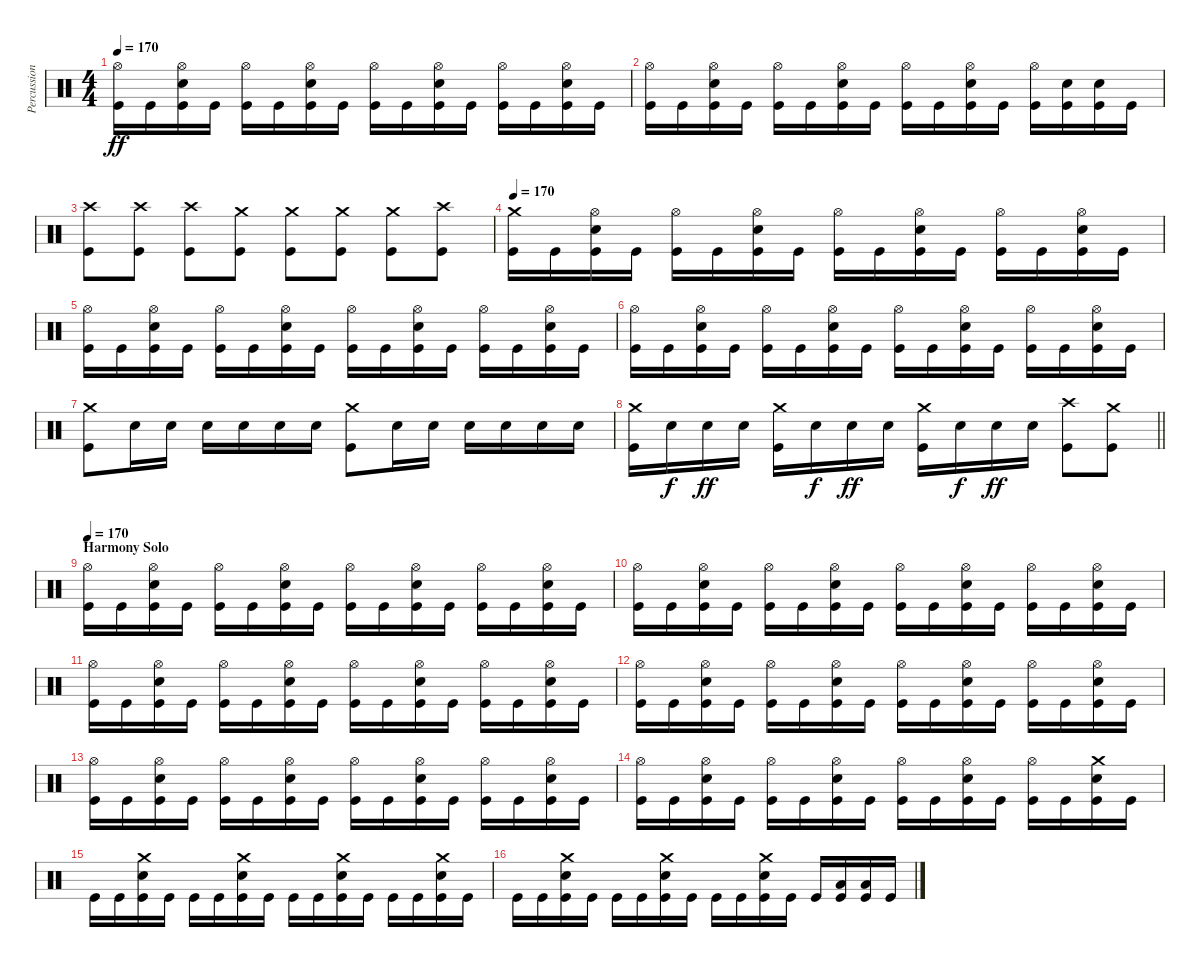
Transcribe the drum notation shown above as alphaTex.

\track ("Percussion" "Percussion") {instrument percussion}
\staff {score}
\articulation defaults
\ts (4 4)
\tempo 170
\clef neutral
\ks c
("Hi-Hat (open)" "Kick (hit)").16{dy ff} "Kick (hit)".16 ("Hi-Hat (open)" "Snare (hit) 2" "Kick (hit)").16 "Kick (hit)".16 ("Hi-Hat (open)" "Kick (hit)").16 "Kick (hit)".16 ("Hi-Hat (open)" "Snare (hit) 2" "Kick (hit)").16 "Kick (hit)".16 ("Hi-Hat (open)" "Kick (hit)").16 "Kick (hit)".16 ("Hi-Hat (open)" "Snare (hit) 2" "Kick (hit)").16 "Kick (hit)".16 ("Hi-Hat (open)" "Kick (hit)").16 "Kick (hit)".16 ("Hi-Hat (open)" "Snare (hit) 2" "Kick (hit)").16 "Kick (hit)".16 |
("Hi-Hat (open)" "Kick (hit)").16 "Kick (hit)".16 ("Hi-Hat (open)" "Snare (hit) 2" "Kick (hit)").16 "Kick (hit)".16 ("Hi-Hat (open)" "Kick (hit)").16 "Kick (hit)".16 ("Hi-Hat (open)" "Snare (hit) 2" "Kick (hit)").16 "Kick (hit)".16 ("Hi-Hat (open)" "Kick (hit)").16 "Kick (hit)".16 ("Hi-Hat (open)" "Snare (hit) 2" "Kick (hit)").16 "Kick (hit)".16 ("Hi-Hat (open)" "Kick (hit)").16 ("Snare (hit) 2" "Kick (hit)").16 ("Snare (hit) 2" "Kick (hit)").16 "Kick (hit)".16 |
("Crash high (hit)" "Kick (hit)").8 ("Crash high (hit)" "Kick (hit)").8 ("Crash high (hit)" "Kick (hit)").8 ("Crash medium (hit)" "Kick (hit)").8 ("Crash medium (hit)" "Kick (hit)").8 ("Crash medium (hit)" "Kick (hit)").8 ("Crash medium (hit)" "Kick (hit)").8 ("Crash high (hit)" "Kick (hit)").8 |
\tempo 170
("Crash medium (hit)" "Kick (hit)").16 "Kick (hit)".16 ("Hi-Hat (open)" "Snare (hit) 2" "Kick (hit)").16 "Kick (hit)".16 ("Hi-Hat (open)" "Kick (hit)").16 "Kick (hit)".16 ("Hi-Hat (open)" "Snare (hit) 2" "Kick (hit)").16 "Kick (hit)".16 ("Hi-Hat (open)" "Kick (hit)").16 "Kick (hit)".16 ("Hi-Hat (open)" "Snare (hit) 2" "Kick (hit)").16 "Kick (hit)".16 ("Hi-Hat (open)" "Kick (hit)").16 "Kick (hit)".16 ("Hi-Hat (open)" "Snare (hit) 2" "Kick (hit)").16 "Kick (hit)".16 |
("Hi-Hat (open)" "Kick (hit)").16 "Kick (hit)".16 ("Hi-Hat (open)" "Snare (hit) 2" "Kick (hit)").16 "Kick (hit)".16 ("Hi-Hat (open)" "Kick (hit)").16 "Kick (hit)".16 ("Hi-Hat (open)" "Snare (hit) 2" "Kick (hit)").16 "Kick (hit)".16 ("Hi-Hat (open)" "Kick (hit)").16 "Kick (hit)".16 ("Hi-Hat (open)" "Snare (hit) 2" "Kick (hit)").16 "Kick (hit)".16 ("Hi-Hat (open)" "Kick (hit)").16 "Kick (hit)".16 ("Hi-Hat (open)" "Snare (hit) 2" "Kick (hit)").16 "Kick (hit)".16 |
("Hi-Hat (open)" "Kick (hit)").16 "Kick (hit)".16 ("Hi-Hat (open)" "Snare (hit) 2" "Kick (hit)").16 "Kick (hit)".16 ("Hi-Hat (open)" "Kick (hit)").16 "Kick (hit)".16 ("Hi-Hat (open)" "Snare (hit) 2" "Kick (hit)").16 "Kick (hit)".16 ("Hi-Hat (open)" "Kick (hit)").16 "Kick (hit)".16 ("Hi-Hat (open)" "Snare (hit) 2" "Kick (hit)").16 "Kick (hit)".16 ("Hi-Hat (open)" "Kick (hit)").16 "Kick (hit)".16 ("Hi-Hat (open)" "Snare (hit) 2" "Kick (hit)").16 "Kick (hit)".16 |
("Crash medium (hit)" "Kick (hit)").8 "Snare (hit) 2".16 "Snare (hit) 2".16 "Snare (hit) 2".16 "Snare (hit) 2".16 "Snare (hit) 2".16 "Snare (hit) 2".16 ("Crash medium (hit)" "Kick (hit)").8 "Snare (hit) 2".16 "Snare (hit) 2".16 "Snare (hit) 2".16 "Snare (hit) 2".16 "Snare (hit) 2".16 "Snare (hit) 2".16 |
\barLineRight lightlight
("Crash medium (hit)" "Kick (hit)").16 "Snare (hit) 2".16{dy f} "Snare (hit) 2".16{dy ff} "Snare (hit) 2".16 ("Crash medium (hit)" "Kick (hit)").16 "Snare (hit) 2".16{dy f} "Snare (hit) 2".16{dy ff} "Snare (hit) 2".16 ("Crash medium (hit)" "Kick (hit)").16 "Snare (hit) 2".16{dy f} "Snare (hit) 2".16{dy ff} "Snare (hit) 2".16 ("Crash high (hit)" "Kick (hit)").8 ("Crash medium (hit)" "Kick (hit)").8 |
\section ("" "Harmony Solo")
\tempo 170
("Hi-Hat (open)" "Kick (hit)").16 "Kick (hit)".16 ("Hi-Hat (open)" "Snare (hit) 2" "Kick (hit)").16 "Kick (hit)".16 ("Hi-Hat (open)" "Kick (hit)").16 "Kick (hit)".16 ("Hi-Hat (open)" "Snare (hit) 2" "Kick (hit)").16 "Kick (hit)".16 ("Hi-Hat (open)" "Kick (hit)").16 "Kick (hit)".16 ("Hi-Hat (open)" "Snare (hit) 2" "Kick (hit)").16 "Kick (hit)".16 ("Hi-Hat (open)" "Kick (hit)").16 "Kick (hit)".16 ("Hi-Hat (open)" "Snare (hit) 2" "Kick (hit)").16 "Kick (hit)".16 |
("Hi-Hat (open)" "Kick (hit)").16 "Kick (hit)".16 ("Hi-Hat (open)" "Snare (hit) 2" "Kick (hit)").16 "Kick (hit)".16 ("Hi-Hat (open)" "Kick (hit)").16 "Kick (hit)".16 ("Hi-Hat (open)" "Snare (hit) 2" "Kick (hit)").16 "Kick (hit)".16 ("Hi-Hat (open)" "Kick (hit)").16 "Kick (hit)".16 ("Hi-Hat (open)" "Snare (hit) 2" "Kick (hit)").16 "Kick (hit)".16 ("Hi-Hat (open)" "Kick (hit)").16 "Kick (hit)".16 ("Hi-Hat (open)" "Snare (hit) 2" "Kick (hit)").16 "Kick (hit)".16 |
("Hi-Hat (open)" "Kick (hit)").16 "Kick (hit)".16 ("Hi-Hat (open)" "Snare (hit) 2" "Kick (hit)").16 "Kick (hit)".16 ("Hi-Hat (open)" "Kick (hit)").16 "Kick (hit)".16 ("Hi-Hat (open)" "Snare (hit) 2" "Kick (hit)").16 "Kick (hit)".16 ("Hi-Hat (open)" "Kick (hit)").16 "Kick (hit)".16 ("Hi-Hat (open)" "Snare (hit) 2" "Kick (hit)").16 "Kick (hit)".16 ("Hi-Hat (open)" "Kick (hit)").16 "Kick (hit)".16 ("Hi-Hat (open)" "Snare (hit) 2" "Kick (hit)").16 "Kick (hit)".16 |
("Hi-Hat (open)" "Kick (hit)").16 "Kick (hit)".16 ("Hi-Hat (open)" "Snare (hit) 2" "Kick (hit)").16 "Kick (hit)".16 ("Hi-Hat (open)" "Kick (hit)").16 "Kick (hit)".16 ("Hi-Hat (open)" "Snare (hit) 2" "Kick (hit)").16 "Kick (hit)".16 ("Hi-Hat (open)" "Kick (hit)").16 "Kick (hit)".16 ("Hi-Hat (open)" "Snare (hit) 2" "Kick (hit)").16 "Kick (hit)".16 ("Hi-Hat (open)" "Kick (hit)").16 "Kick (hit)".16 ("Hi-Hat (open)" "Snare (hit) 2" "Kick (hit)").16 "Kick (hit)".16 |
("Hi-Hat (open)" "Kick (hit)").16 "Kick (hit)".16 ("Hi-Hat (open)" "Snare (hit) 2" "Kick (hit)").16 "Kick (hit)".16 ("Hi-Hat (open)" "Kick (hit)").16 "Kick (hit)".16 ("Hi-Hat (open)" "Snare (hit) 2" "Kick (hit)").16 "Kick (hit)".16 ("Hi-Hat (open)" "Kick (hit)").16 "Kick (hit)".16 ("Hi-Hat (open)" "Snare (hit) 2" "Kick (hit)").16 "Kick (hit)".16 ("Hi-Hat (open)" "Kick (hit)").16 "Kick (hit)".16 ("Hi-Hat (open)" "Snare (hit) 2" "Kick (hit)").16 "Kick (hit)".16 |
("Hi-Hat (open)" "Kick (hit)").16 "Kick (hit)".16 ("Hi-Hat (open)" "Snare (hit) 2" "Kick (hit)").16 "Kick (hit)".16 ("Hi-Hat (open)" "Kick (hit)").16 "Kick (hit)".16 ("Hi-Hat (open)" "Snare (hit) 2" "Kick (hit)").16 "Kick (hit)".16 ("Hi-Hat (open)" "Kick (hit)").16 "Kick (hit)".16 ("Hi-Hat (open)" "Snare (hit) 2" "Kick (hit)").16 "Kick (hit)".16 ("Hi-Hat (open)" "Kick (hit)").16 "Kick (hit)".16 ("Crash medium (hit)" "Snare (hit) 2" "Kick (hit)").16 "Kick (hit)".16 |
"Kick (hit)".16 "Kick (hit)".16 ("Crash medium (hit)" "Snare (hit) 2" "Kick (hit)").16 "Kick (hit)".16 "Kick (hit)".16 "Kick (hit)".16 ("Crash medium (hit)" "Snare (hit) 2" "Kick (hit)").16 "Kick (hit)".16 "Kick (hit)".16 "Kick (hit)".16 ("Crash medium (hit)" "Snare (hit) 2" "Kick (hit)").16 "Kick (hit)".16 "Kick (hit)".16 "Kick (hit)".16 ("Crash medium (hit)" "Snare (hit) 2" "Kick (hit)").16 "Kick (hit)".16 |
"Kick (hit)".16 "Kick (hit)".16 ("Crash medium (hit)" "Snare (hit) 2" "Kick (hit)").16 "Kick (hit)".16 "Kick (hit)".16 "Kick (hit)".16 ("Crash medium (hit)" "Snare (hit) 2" "Kick (hit)").16 "Kick (hit)".16 "Kick (hit)".16 "Kick (hit)".16 ("Crash medium (hit)" "Snare (hit) 2" "Kick (hit)").16 "Kick (hit)".16 "Kick (hit)".16 ("Low Tom (hit)" "Kick (hit)").16 ("Low Tom (hit)" "Kick (hit)").16 "Kick (hit)".16
